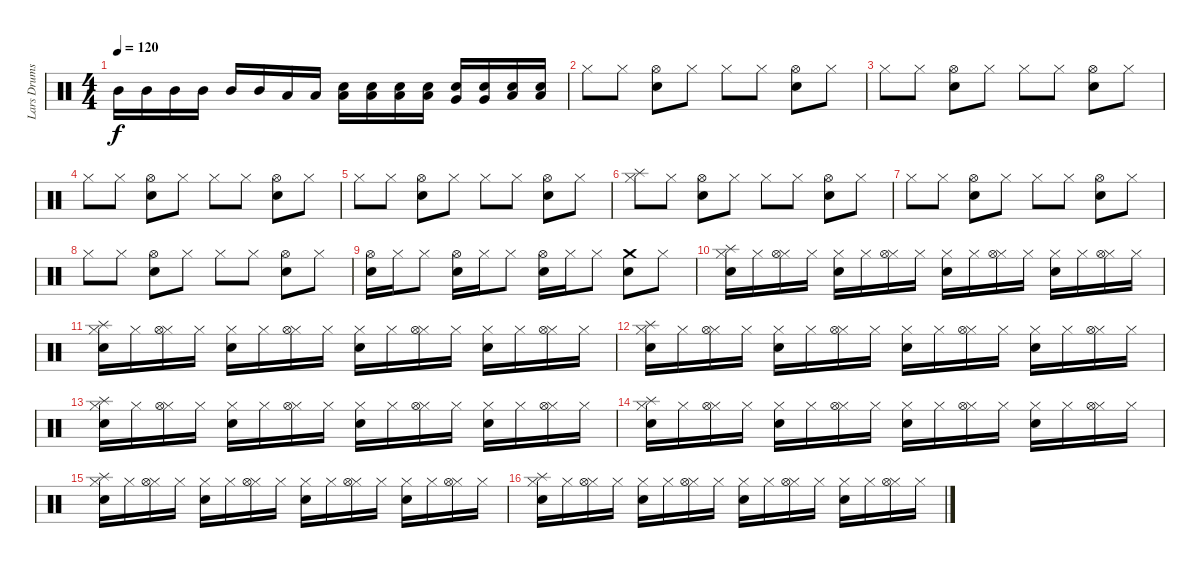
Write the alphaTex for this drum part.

\track ("Lars Drums" "Lars Drums") {instrument percussion}
\staff {score}
\articulation defaults
\ts (4 4)
\tempo 120
\clef neutral
\ks c "Mid Tom (hit)".16{dy f} "Mid Tom (hit)".16 "Mid Tom (hit)".16 "Mid Tom (hit)".16 "Mid Tom (hit)".16 "Mid Tom (hit)".16 "Low Tom (hit)".16 "Low Tom (hit)".16
("Low Tom (hit)" "Snare (hit) 2").16 ("Low Tom (hit)" "Snare (hit) 2").16 ("Low Tom (hit)" "Snare (hit) 2").16 ("Low Tom (hit)" "Snare (hit) 2").16 ("Very Low Tom (hit)" "Snare (hit) 2").16 ("Very Low Tom (hit)" "Snare (hit) 2").16 ("Low Floor Tom (hit)" "Snare (hit) 2").16 ("Low Floor Tom (hit)" "Snare (hit) 2").16 |
"Hi-Hat (closed)".8 "Hi-Hat (closed)".8 ("Snare (hit) 2" "Hi-Hat (open)").8 "Hi-Hat (closed)".8 "Hi-Hat (closed)".8 "Hi-Hat (closed)".8 ("Snare (hit) 2" "Hi-Hat (open)").8 "Hi-Hat (closed)".8 |
"Hi-Hat (closed)".8 "Hi-Hat (closed)".8 ("Snare (hit) 2" "Hi-Hat (open)").8 "Hi-Hat (closed)".8 "Hi-Hat (closed)".8 "Hi-Hat (closed)".8 ("Snare (hit) 2" "Hi-Hat (open)").8 "Hi-Hat (closed)".8 |
"Hi-Hat (closed)".8 "Hi-Hat (closed)".8 ("Snare (hit) 2" "Hi-Hat (open)").8 "Hi-Hat (closed)".8 "Hi-Hat (closed)".8 "Hi-Hat (closed)".8 ("Snare (hit) 2" "Hi-Hat (open)").8 "Hi-Hat (closed)".8 |
"Hi-Hat (closed)".8 "Hi-Hat (closed)".8 ("Snare (hit) 2" "Hi-Hat (open)").8 "Hi-Hat (closed)".8 "Hi-Hat (closed)".8 "Hi-Hat (closed)".8 ("Snare (hit) 2" "Hi-Hat (open)").8 "Hi-Hat (closed)".8 |
("Splash (hit)" "Hi-Hat (closed)").8 "Hi-Hat (closed)".8 ("Snare (hit) 2" "Hi-Hat (open)").8 "Hi-Hat (closed)".8 "Hi-Hat (closed)".8 "Hi-Hat (closed)".8 ("Snare (hit) 2" "Hi-Hat (open)").8 "Hi-Hat (closed)".8 |
"Hi-Hat (closed)".8 "Hi-Hat (closed)".8 ("Snare (hit) 2" "Hi-Hat (open)").8 "Hi-Hat (closed)".8 "Hi-Hat (closed)".8 "Hi-Hat (closed)".8 ("Snare (hit) 2" "Hi-Hat (open)").8 "Hi-Hat (closed)".8 |
"Hi-Hat (closed)".8 "Hi-Hat (closed)".8 ("Snare (hit) 2" "Hi-Hat (open)").8 "Hi-Hat (closed)".8 "Hi-Hat (closed)".8 "Hi-Hat (closed)".8 ("Snare (hit) 2" "Hi-Hat (open)").8 "Hi-Hat (closed)".8 |
("Snare (hit) 2" "Hi-Hat (open)").16 "Hi-Hat (closed)".16 "Hi-Hat (closed)".8 ("Snare (hit) 2" "Hi-Hat (open)").16 "Hi-Hat (closed)".16 "Hi-Hat (closed)".8 ("Snare (hit) 2" "Hi-Hat (open)").16 "Hi-Hat (closed)".16 "Hi-Hat (closed)".8 ("Snare (hit) 2" "Crash medium (hit)").8 "Hi-Hat (closed)".8 |
("Hi-Hat (closed)" "Snare (hit) 2" "Splash (hit)").16 "Hi-Hat (closed)".16 ("Hi-Hat (closed)" "Hi-Hat (open)").16 "Hi-Hat (closed)".16 ("Hi-Hat (closed)" "Snare (hit) 2").16 "Hi-Hat (closed)".16 ("Hi-Hat (closed)" "Hi-Hat (open)").16 "Hi-Hat (closed)".16 ("Hi-Hat (closed)" "Snare (hit) 2").16 "Hi-Hat (closed)".16 ("Hi-Hat (closed)" "Hi-Hat (open)").16 "Hi-Hat (closed)".16 ("Hi-Hat (closed)" "Snare (hit) 2").16 "Hi-Hat (closed)".16 ("Hi-Hat (closed)" "Hi-Hat (open)").16 "Hi-Hat (closed)".16 |
("Hi-Hat (closed)" "Snare (hit) 2" "Splash (hit)").16 "Hi-Hat (closed)".16 ("Hi-Hat (closed)" "Hi-Hat (open)").16 "Hi-Hat (closed)".16 ("Hi-Hat (closed)" "Snare (hit) 2").16 "Hi-Hat (closed)".16 ("Hi-Hat (closed)" "Hi-Hat (open)").16 "Hi-Hat (closed)".16 ("Hi-Hat (closed)" "Snare (hit) 2").16 "Hi-Hat (closed)".16 ("Hi-Hat (closed)" "Hi-Hat (open)").16 "Hi-Hat (closed)".16 ("Hi-Hat (closed)" "Snare (hit) 2").16 "Hi-Hat (closed)".16 ("Hi-Hat (closed)" "Hi-Hat (open)").16 "Hi-Hat (closed)".16 |
("Hi-Hat (closed)" "Snare (hit) 2" "Splash (hit)").16 "Hi-Hat (closed)".16 ("Hi-Hat (closed)" "Hi-Hat (open)").16 "Hi-Hat (closed)".16 ("Hi-Hat (closed)" "Snare (hit) 2").16 "Hi-Hat (closed)".16 ("Hi-Hat (closed)" "Hi-Hat (open)").16 "Hi-Hat (closed)".16 ("Hi-Hat (closed)" "Snare (hit) 2").16 "Hi-Hat (closed)".16 ("Hi-Hat (closed)" "Hi-Hat (open)").16 "Hi-Hat (closed)".16 ("Hi-Hat (closed)" "Snare (hit) 2").16 "Hi-Hat (closed)".16 ("Hi-Hat (closed)" "Hi-Hat (open)").16 "Hi-Hat (closed)".16 |
("Hi-Hat (closed)" "Snare (hit) 2" "Splash (hit)").16 "Hi-Hat (closed)".16 ("Hi-Hat (closed)" "Hi-Hat (open)").16 "Hi-Hat (closed)".16 ("Hi-Hat (closed)" "Snare (hit) 2").16 "Hi-Hat (closed)".16 ("Hi-Hat (closed)" "Hi-Hat (open)").16 "Hi-Hat (closed)".16 ("Hi-Hat (closed)" "Snare (hit) 2").16 "Hi-Hat (closed)".16 ("Hi-Hat (closed)" "Hi-Hat (open)").16 "Hi-Hat (closed)".16 ("Hi-Hat (closed)" "Snare (hit) 2").16 "Hi-Hat (closed)".16 ("Hi-Hat (closed)" "Hi-Hat (open)").16 "Hi-Hat (closed)".16 |
("Hi-Hat (closed)" "Snare (hit) 2" "Splash (hit)").16 "Hi-Hat (closed)".16 ("Hi-Hat (closed)" "Hi-Hat (open)").16 "Hi-Hat (closed)".16 ("Hi-Hat (closed)" "Snare (hit) 2").16 "Hi-Hat (closed)".16 ("Hi-Hat (closed)" "Hi-Hat (open)").16 "Hi-Hat (closed)".16 ("Hi-Hat (closed)" "Snare (hit) 2").16 "Hi-Hat (closed)".16 ("Hi-Hat (closed)" "Hi-Hat (open)").16 "Hi-Hat (closed)".16 ("Hi-Hat (closed)" "Snare (hit) 2").16 "Hi-Hat (closed)".16 ("Hi-Hat (closed)" "Hi-Hat (open)").16 "Hi-Hat (closed)".16 |
("Hi-Hat (closed)" "Snare (hit) 2" "Splash (hit)").16 "Hi-Hat (closed)".16 ("Hi-Hat (closed)" "Hi-Hat (open)").16 "Hi-Hat (closed)".16 ("Hi-Hat (closed)" "Snare (hit) 2").16 "Hi-Hat (closed)".16 ("Hi-Hat (closed)" "Hi-Hat (open)").16 "Hi-Hat (closed)".16 ("Hi-Hat (closed)" "Snare (hit) 2").16 "Hi-Hat (closed)".16 ("Hi-Hat (closed)" "Hi-Hat (open)").16 "Hi-Hat (closed)".16 ("Hi-Hat (closed)" "Snare (hit) 2").16 "Hi-Hat (closed)".16 ("Hi-Hat (closed)" "Hi-Hat (open)").16 "Hi-Hat (closed)".16 |
("Hi-Hat (closed)" "Snare (hit) 2" "Splash (hit)").16 "Hi-Hat (closed)".16 ("Hi-Hat (closed)" "Hi-Hat (open)").16 "Hi-Hat (closed)".16 ("Hi-Hat (closed)" "Snare (hit) 2").16 "Hi-Hat (closed)".16 ("Hi-Hat (closed)" "Hi-Hat (open)").16 "Hi-Hat (closed)".16 ("Hi-Hat (closed)" "Snare (hit) 2").16 "Hi-Hat (closed)".16 ("Hi-Hat (closed)" "Hi-Hat (open)").16 "Hi-Hat (closed)".16 ("Hi-Hat (closed)" "Snare (hit) 2").16 "Hi-Hat (closed)".16 ("Hi-Hat (closed)" "Hi-Hat (open)").16 "Hi-Hat (closed)".16
